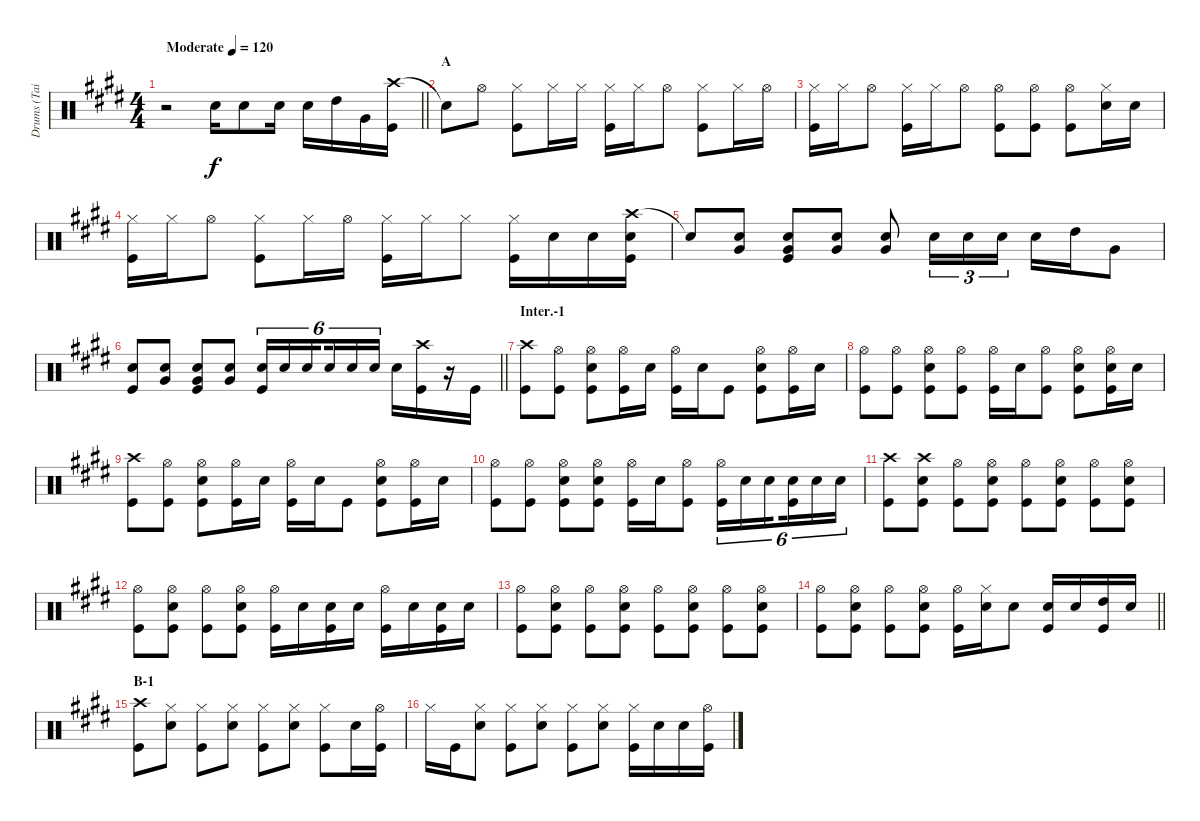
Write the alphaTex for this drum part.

\track ("Drums (Tainaka Ritsu)" "Drums (Tai") {instrument percussion}
\staff {score}
\articulation defaults
\ts (4 4)
\tempo (120 "Moderate")
\clef neutral
\barLineRight lightlight
\ks e
r.2{dy f} "Snare (hit) 2".16 "Snare (hit) 2".8 "Snare (hit) 2".16 "Snare (hit) 2".16 "High Tom (hit)".16 "Very Low Tom (hit)".16 ("Crash high (hit)" "Kick (hit)").16 |
\section ("" "A")
"Snare (hit)"{t}.8 "Hi-Hat (open)".8 ("Hi-Hat (closed)" "Kick (hit)").8 "Hi-Hat (closed)".16 "Hi-Hat (closed)".16 ("Hi-Hat (closed)" "Kick (hit)").16 "Hi-Hat (closed)".16 "Hi-Hat (open)".8 ("Hi-Hat (closed)" "Kick (hit)").8 "Hi-Hat (closed)".16 "Hi-Hat (open)".16 |
("Hi-Hat (closed)" "Kick (hit)").16 "Hi-Hat (closed)".16 "Hi-Hat (open)".8 ("Hi-Hat (closed)" "Kick (hit)").16 "Hi-Hat (closed)".16 "Hi-Hat (open)".8 ("Hi-Hat (open)" "Kick (hit)").8 ("Hi-Hat (open)" "Kick (hit)").8 ("Hi-Hat (open)" "Kick (hit)").8 ("Hi-Hat (closed)" "Snare (hit) 2").16 "Snare (hit) 2".16 |
("Hi-Hat (closed)" "Kick (hit)").16 "Hi-Hat (closed)".16 "Hi-Hat (open)".8 ("Hi-Hat (closed)" "Kick (hit)").8 "Hi-Hat (closed)".16 "Hi-Hat (open)".16 ("Hi-Hat (closed)" "Kick (hit)").16 "Hi-Hat (closed)".16 "Hi-Hat (closed)".8 ("Hi-Hat (closed)" "Kick (hit)").16 "Snare (hit) 2".16 "Snare (hit) 2".16 ("Crash high (hit)" "Snare (hit) 2" "Kick (hit)").16 |
"Snare (hit)"{t}.8 ("Snare (hit) 2" "Very Low Tom (hit)").8 ("Snare (hit) 2" "Very Low Tom (hit)" "Kick (hit)").8 ("Snare (hit) 2" "Very Low Tom (hit)").8 ("Snare (hit) 2" "Very Low Tom (hit)").8 "Snare (hit) 2".16{tu (3 2)} "Snare (hit) 2".16{tu (3 2)} "Snare (hit) 2".16{tu (3 2)} "Snare (hit) 2".16 "High Tom (hit)".16 "Very Low Tom (hit)".8 |
\barLineRight lightlight
("Snare (hit) 2" "Kick (hit)").8 ("Snare (hit) 2" "Very Low Tom (hit)").8 ("Snare (hit) 2" "Very Low Tom (hit)" "Kick (hit)").8 ("Snare (hit) 2" "Very Low Tom (hit)").8 ("Snare (hit) 2" "Kick (hit)").16{tu (6 4)} "Snare (hit) 2".16{tu (6 4)} "Snare (hit) 2".16{tu (6 4) beam splitsecondary} "Snare (hit) 2".16{tu (6 4)} "Snare (hit) 2".16{tu (6 4)} "Snare (hit) 2".16{tu (6 4)} "Snare (hit) 2".16 ("Crash high (hit)" "Kick (hit)").16 r.16 "Kick (hit)".16 |
\section ("" "Inter.-1")
("Crash high (hit)" "Kick (hit)").8 ("Hi-Hat (open)" "Kick (hit)").8 ("Hi-Hat (open)" "Snare (hit) 2" "Kick (hit)").8 ("Hi-Hat (open)" "Kick (hit)").16 "Snare (hit) 2".16 ("Hi-Hat (open)" "Kick (hit)").16 "Snare (hit) 2".16 "Kick (hit)".8 ("Hi-Hat (open)" "Snare (hit) 2" "Kick (hit)").8 ("Hi-Hat (open)" "Kick (hit)").16 "Snare (hit) 2".16 |
("Hi-Hat (open)" "Kick (hit)").8 ("Hi-Hat (open)" "Kick (hit)").8 ("Hi-Hat (open)" "Snare (hit) 2" "Kick (hit)").8 ("Hi-Hat (open)" "Kick (hit)").8 ("Hi-Hat (open)" "Kick (hit)").16 "Snare (hit) 2".16 ("Hi-Hat (open)" "Kick (hit)").8 ("Hi-Hat (open)" "Snare (hit) 2" "Kick (hit)").8 ("Hi-Hat (open)" "Snare (hit) 2" "Kick (hit)").16 "Snare (hit) 2".16 |
("Crash high (hit)" "Kick (hit)").8 ("Hi-Hat (open)" "Kick (hit)").8 ("Hi-Hat (open)" "Snare (hit) 2" "Kick (hit)").8 ("Hi-Hat (open)" "Kick (hit)").16 "Snare (hit) 2".16 ("Hi-Hat (open)" "Kick (hit)").16 "Snare (hit) 2".16 "Kick (hit)".8 ("Hi-Hat (open)" "Snare (hit) 2" "Kick (hit)").8 ("Hi-Hat (open)" "Kick (hit)").16 "Snare (hit) 2".16 |
("Hi-Hat (open)" "Kick (hit)").8 ("Hi-Hat (open)" "Kick (hit)").8 ("Hi-Hat (open)" "Snare (hit) 2" "Kick (hit)").8 ("Hi-Hat (open)" "Snare (hit) 2" "Kick (hit)").8 ("Hi-Hat (open)" "Kick (hit)").16 "Snare (hit) 2".16 ("Hi-Hat (open)" "Kick (hit)").8 ("Hi-Hat (open)" "Kick (hit)").16{tu (6 4)} "Snare (hit) 2".16{tu (6 4)} "Snare (hit) 2".16{tu (6 4) beam splitsecondary} ("Snare (hit) 2" "Kick (hit)").16{tu (6 4)} "Snare (hit) 2".16{tu (6 4)} "Snare (hit) 2".16{tu (6 4)} |
("Crash high (hit)" "Kick (hit)").8 ("Crash high (hit)" "Snare (hit) 2" "Kick (hit)").8 ("Hi-Hat (open)" "Kick (hit)").8 ("Hi-Hat (open)" "Snare (hit) 2" "Kick (hit)").8 ("Hi-Hat (open)" "Kick (hit)").8 ("Hi-Hat (open)" "Snare (hit) 2" "Kick (hit)").8 ("Hi-Hat (open)" "Kick (hit)").8 ("Hi-Hat (open)" "Snare (hit) 2" "Kick (hit)").8 |
("Hi-Hat (open)" "Kick (hit)").8 ("Hi-Hat (open)" "Snare (hit) 2" "Kick (hit)").8 ("Hi-Hat (open)" "Kick (hit)").8 ("Hi-Hat (open)" "Snare (hit) 2" "Kick (hit)").8 ("Hi-Hat (open)" "Kick (hit)").16 "Snare (hit) 2".16 ("Snare (hit) 2" "Kick (hit)").16 "Snare (hit) 2".16 ("Hi-Hat (open)" "Kick (hit)").16 "Snare (hit) 2".16 ("Snare (hit) 2" "Kick (hit)").16 "Snare (hit) 2".16 |
("Hi-Hat (open)" "Kick (hit)").8 ("Hi-Hat (open)" "Snare (hit) 2" "Kick (hit)").8 ("Hi-Hat (open)" "Kick (hit)").8 ("Hi-Hat (open)" "Snare (hit) 2" "Kick (hit)").8 ("Hi-Hat (open)" "Kick (hit)").8 ("Hi-Hat (open)" "Snare (hit) 2" "Kick (hit)").8 ("Hi-Hat (open)" "Kick (hit)").8 ("Hi-Hat (open)" "Snare (hit) 2" "Kick (hit)").8 |
\barLineRight lightlight
("Hi-Hat (open)" "Kick (hit)").8 ("Hi-Hat (open)" "Snare (hit) 2" "Kick (hit)").8 ("Hi-Hat (open)" "Kick (hit)").8 ("Hi-Hat (open)" "Snare (hit) 2" "Kick (hit)").8 ("Hi-Hat (open)" "Kick (hit)").16 ("Hi-Hat (closed)" "Snare (hit) 2").16 "Snare (hit) 2".8 ("Snare (hit) 2" "Kick (hit)").16 "Snare (hit) 2".16 ("High Tom (hit)" "Kick (hit)").16 "Snare (hit) 2".16 |
\section ("" "B-1")
("Crash high (hit)" "Kick (hit)").8 ("Hi-Hat (closed)" "Snare (hit) 2").8 ("Hi-Hat (closed)" "Kick (hit)").8 ("Hi-Hat (closed)" "Snare (hit) 2").8 ("Hi-Hat (closed)" "Kick (hit)").8 ("Hi-Hat (closed)" "Snare (hit) 2").8 ("Hi-Hat (closed)" "Kick (hit)").8 "Snare (hit) 2".16 ("Hi-Hat (open)" "Kick (hit)").16 |
"Hi-Hat (closed)".16 "Kick (hit)".16 ("Hi-Hat (closed)" "Snare (hit) 2").8 ("Hi-Hat (closed)" "Kick (hit)").8 ("Hi-Hat (closed)" "Snare (hit) 2").8 ("Hi-Hat (closed)" "Kick (hit)").8 ("Hi-Hat (closed)" "Snare (hit) 2").8 ("Hi-Hat (closed)" "Kick (hit)").16 "Snare (hit) 2".16 "Snare (hit) 2".16 ("Hi-Hat (open)" "Kick (hit)").16
